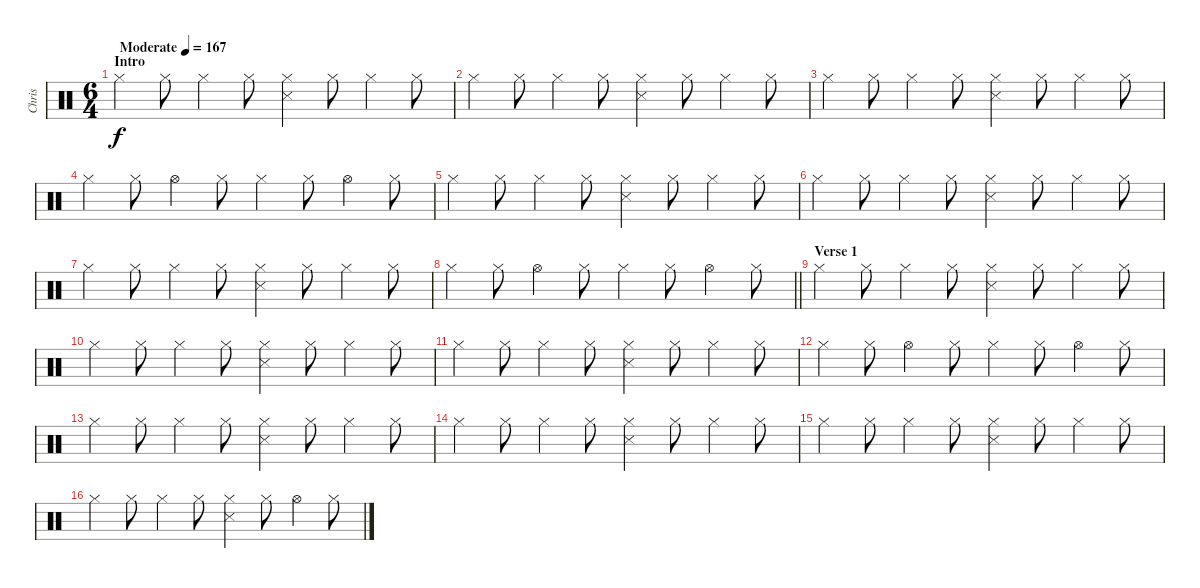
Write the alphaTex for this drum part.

\track ("Chris" "Chris") {instrument percussion}
\staff {score}
\articulation defaults
\ts (6 4)
\section ("" "Intro")
\tempo (167 "Moderate")
\clef neutral
\ks c "Hi-Hat (closed)".4{dy f} "Hi-Hat (closed)".8 "Hi-Hat (closed)".4 "Hi-Hat (closed)".8
("Hi-Hat (closed)" "Snare (side stick) 3").4 "Hi-Hat (closed)".8 "Hi-Hat (closed)".4 "Hi-Hat (closed)".8 |
"Hi-Hat (closed)".4 "Hi-Hat (closed)".8 "Hi-Hat (closed)".4 "Hi-Hat (closed)".8 ("Hi-Hat (closed)" "Snare (side stick) 3").4 "Hi-Hat (closed)".8 "Hi-Hat (closed)".4 "Hi-Hat (closed)".8 |
"Hi-Hat (closed)".4 "Hi-Hat (closed)".8 "Hi-Hat (closed)".4 "Hi-Hat (closed)".8 ("Hi-Hat (closed)" "Snare (side stick) 3").4 "Hi-Hat (closed)".8 "Hi-Hat (closed)".4 "Hi-Hat (closed)".8 |
"Hi-Hat (closed)".4 "Hi-Hat (closed)".8 "Hi-Hat (open)".4 "Hi-Hat (closed)".8 "Hi-Hat (closed)".4 "Hi-Hat (closed)".8 "Hi-Hat (open)".4 "Hi-Hat (closed)".8 |
"Hi-Hat (closed)".4 "Hi-Hat (closed)".8 "Hi-Hat (closed)".4 "Hi-Hat (closed)".8 ("Hi-Hat (closed)" "Snare (side stick) 3").4 "Hi-Hat (closed)".8 "Hi-Hat (closed)".4 "Hi-Hat (closed)".8 |
"Hi-Hat (closed)".4 "Hi-Hat (closed)".8 "Hi-Hat (closed)".4 "Hi-Hat (closed)".8 ("Hi-Hat (closed)" "Snare (side stick) 3").4 "Hi-Hat (closed)".8 "Hi-Hat (closed)".4 "Hi-Hat (closed)".8 |
"Hi-Hat (closed)".4 "Hi-Hat (closed)".8 "Hi-Hat (closed)".4 "Hi-Hat (closed)".8 ("Hi-Hat (closed)" "Snare (side stick) 3").4 "Hi-Hat (closed)".8 "Hi-Hat (closed)".4 "Hi-Hat (closed)".8 |
\barLineRight lightlight "Hi-Hat (closed)".4 "Hi-Hat (closed)".8 "Hi-Hat (open)".4 "Hi-Hat (closed)".8 "Hi-Hat (closed)".4 "Hi-Hat (closed)".8 "Hi-Hat (open)".4 "Hi-Hat (closed)".8
|
\section ("" "Verse 1")
"Hi-Hat (closed)".4 "Hi-Hat (closed)".8 "Hi-Hat (closed)".4 "Hi-Hat (closed)".8 ("Hi-Hat (closed)" "Snare (side stick) 3").4 "Hi-Hat (closed)".8 "Hi-Hat (closed)".4 "Hi-Hat (closed)".8 |
"Hi-Hat (closed)".4 "Hi-Hat (closed)".8 "Hi-Hat (closed)".4 "Hi-Hat (closed)".8 ("Hi-Hat (closed)" "Snare (side stick) 3").4 "Hi-Hat (closed)".8 "Hi-Hat (closed)".4 "Hi-Hat (closed)".8 |
"Hi-Hat (closed)".4 "Hi-Hat (closed)".8 "Hi-Hat (closed)".4 "Hi-Hat (closed)".8 ("Hi-Hat (closed)" "Snare (side stick) 3").4 "Hi-Hat (closed)".8 "Hi-Hat (closed)".4 "Hi-Hat (closed)".8 |
"Hi-Hat (closed)".4 "Hi-Hat (closed)".8 "Hi-Hat (open)".4 "Hi-Hat (closed)".8 "Hi-Hat (closed)".4 "Hi-Hat (closed)".8 "Hi-Hat (open)".4 "Hi-Hat (closed)".8 |
"Hi-Hat (closed)".4 "Hi-Hat (closed)".8 "Hi-Hat (closed)".4 "Hi-Hat (closed)".8 ("Hi-Hat (closed)" "Snare (side stick) 3").4 "Hi-Hat (closed)".8 "Hi-Hat (closed)".4 "Hi-Hat (closed)".8 |
"Hi-Hat (closed)".4 "Hi-Hat (closed)".8 "Hi-Hat (closed)".4 "Hi-Hat (closed)".8 ("Hi-Hat (closed)" "Snare (side stick) 3").4 "Hi-Hat (closed)".8 "Hi-Hat (closed)".4 "Hi-Hat (closed)".8 |
"Hi-Hat (closed)".4 "Hi-Hat (closed)".8 "Hi-Hat (closed)".4 "Hi-Hat (closed)".8 ("Hi-Hat (closed)" "Snare (side stick) 3").4 "Hi-Hat (closed)".8 "Hi-Hat (closed)".4 "Hi-Hat (closed)".8 |
"Hi-Hat (closed)".4 "Hi-Hat (closed)".8 "Hi-Hat (closed)".4 "Hi-Hat (closed)".8 ("Hi-Hat (closed)" "Snare (side stick) 3").4 "Hi-Hat (closed)".8 "Hi-Hat (open)".4 "Hi-Hat (closed)".8
